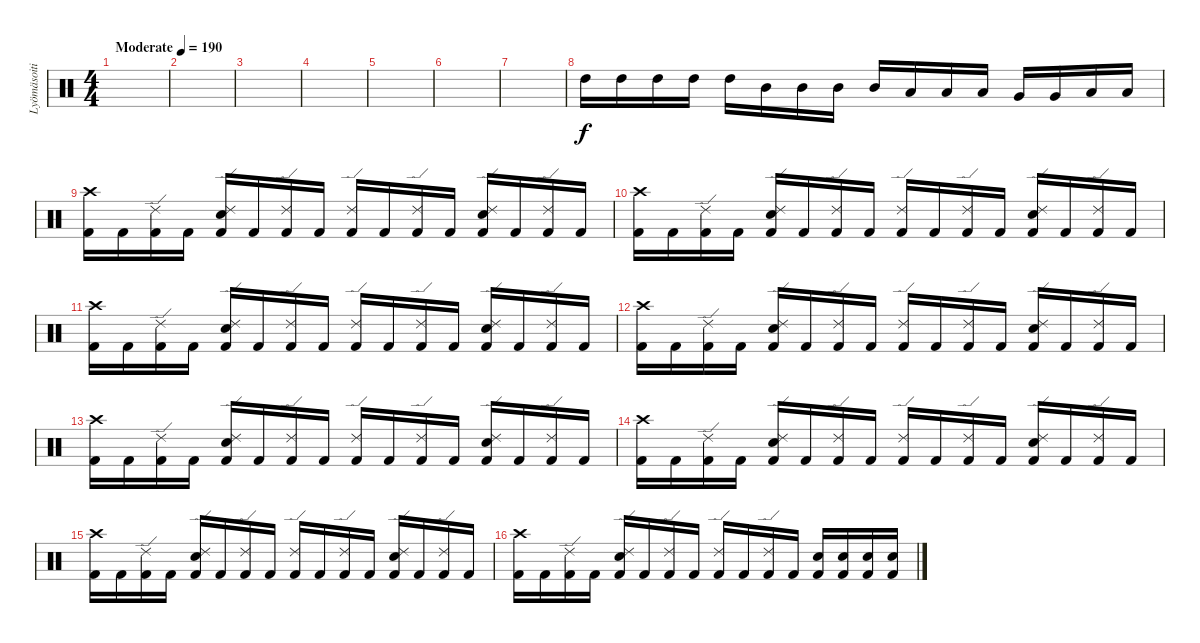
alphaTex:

\track ("Lyömäsoitin" "Lyömäsoiti") {instrument percussion}
\staff {score}
\articulation defaults
\ts (4 4)
\tempo (190 "Moderate")
\clef neutral
\ks c
|
|
|
|
|
|
|
"High Tom (hit)".16 "High Tom (hit)".16 "High Tom (hit)".16 "High Tom (hit)".16 "High Tom (hit)".16 "Mid Tom (hit)".16 "Mid Tom (hit)".16 "Mid Tom (hit)".16 "Mid Tom (hit)".16 "Low Tom (hit)".16 "Low Tom (hit)".16 "Low Tom (hit)".16 "Very Low Tom (hit)".16 "Very Low Tom (hit)".16 "Low Floor Tom (hit)".16 "Low Floor Tom (hit)".16 |
("Crash high (hit)" "Kick (hit) 2").16{dy f} "Kick (hit) 2".16 ("Ride (edge) 2" "Kick (hit) 2").16 "Kick (hit) 2".16 ("Ride (edge) 2" "Electric Snare (hit)" "Kick (hit) 2").16 "Kick (hit) 2".16 ("Ride (edge) 2" "Kick (hit) 2").16 "Kick (hit) 2".16 ("Ride (edge) 2" "Kick (hit) 2").16 "Kick (hit) 2".16 ("Ride (edge) 2" "Kick (hit) 2").16 "Kick (hit) 2".16 ("Ride (edge) 2" "Electric Snare (hit)" "Kick (hit) 2").16 "Kick (hit) 2".16 ("Ride (edge) 2" "Kick (hit) 2").16 "Kick (hit) 2".16 |
("Crash high (hit)" "Kick (hit) 2").16 "Kick (hit) 2".16 ("Ride (edge) 2" "Kick (hit) 2").16 "Kick (hit) 2".16 ("Ride (edge) 2" "Electric Snare (hit)" "Kick (hit) 2").16 "Kick (hit) 2".16 ("Ride (edge) 2" "Kick (hit) 2").16 "Kick (hit) 2".16 ("Ride (edge) 2" "Kick (hit) 2").16 "Kick (hit) 2".16 ("Ride (edge) 2" "Kick (hit) 2").16 "Kick (hit) 2".16 ("Ride (edge) 2" "Electric Snare (hit)" "Kick (hit) 2").16 "Kick (hit) 2".16 ("Ride (edge) 2" "Kick (hit) 2").16 "Kick (hit) 2".16 |
("Crash high (hit)" "Kick (hit) 2").16 "Kick (hit) 2".16 ("Ride (edge) 2" "Kick (hit) 2").16 "Kick (hit) 2".16 ("Ride (edge) 2" "Electric Snare (hit)" "Kick (hit) 2").16 "Kick (hit) 2".16 ("Ride (edge) 2" "Kick (hit) 2").16 "Kick (hit) 2".16 ("Ride (edge) 2" "Kick (hit) 2").16 "Kick (hit) 2".16 ("Ride (edge) 2" "Kick (hit) 2").16 "Kick (hit) 2".16 ("Ride (edge) 2" "Electric Snare (hit)" "Kick (hit) 2").16 "Kick (hit) 2".16 ("Ride (edge) 2" "Kick (hit) 2").16 "Kick (hit) 2".16 |
("Crash high (hit)" "Kick (hit) 2").16 "Kick (hit) 2".16 ("Ride (edge) 2" "Kick (hit) 2").16 "Kick (hit) 2".16 ("Ride (edge) 2" "Electric Snare (hit)" "Kick (hit) 2").16 "Kick (hit) 2".16 ("Ride (edge) 2" "Kick (hit) 2").16 "Kick (hit) 2".16 ("Ride (edge) 2" "Kick (hit) 2").16 "Kick (hit) 2".16 ("Ride (edge) 2" "Kick (hit) 2").16 "Kick (hit) 2".16 ("Ride (edge) 2" "Electric Snare (hit)" "Kick (hit) 2").16 "Kick (hit) 2".16 ("Ride (edge) 2" "Kick (hit) 2").16 "Kick (hit) 2".16 |
("Crash high (hit)" "Kick (hit) 2").16 "Kick (hit) 2".16 ("Ride (edge) 2" "Kick (hit) 2").16 "Kick (hit) 2".16 ("Ride (edge) 2" "Electric Snare (hit)" "Kick (hit) 2").16 "Kick (hit) 2".16 ("Ride (edge) 2" "Kick (hit) 2").16 "Kick (hit) 2".16 ("Ride (edge) 2" "Kick (hit) 2").16 "Kick (hit) 2".16 ("Ride (edge) 2" "Kick (hit) 2").16 "Kick (hit) 2".16 ("Ride (edge) 2" "Electric Snare (hit)" "Kick (hit) 2").16 "Kick (hit) 2".16 ("Ride (edge) 2" "Kick (hit) 2").16 "Kick (hit) 2".16 |
("Crash high (hit)" "Kick (hit) 2").16 "Kick (hit) 2".16 ("Ride (edge) 2" "Kick (hit) 2").16 "Kick (hit) 2".16 ("Ride (edge) 2" "Electric Snare (hit)" "Kick (hit) 2").16 "Kick (hit) 2".16 ("Ride (edge) 2" "Kick (hit) 2").16 "Kick (hit) 2".16 ("Ride (edge) 2" "Kick (hit) 2").16 "Kick (hit) 2".16 ("Ride (edge) 2" "Kick (hit) 2").16 "Kick (hit) 2".16 ("Ride (edge) 2" "Electric Snare (hit)" "Kick (hit) 2").16 "Kick (hit) 2".16 ("Ride (edge) 2" "Kick (hit) 2").16 "Kick (hit) 2".16 |
("Crash high (hit)" "Kick (hit) 2").16 "Kick (hit) 2".16 ("Ride (edge) 2" "Kick (hit) 2").16 "Kick (hit) 2".16 ("Ride (edge) 2" "Electric Snare (hit)" "Kick (hit) 2").16 "Kick (hit) 2".16 ("Ride (edge) 2" "Kick (hit) 2").16 "Kick (hit) 2".16 ("Ride (edge) 2" "Kick (hit) 2").16 "Kick (hit) 2".16 ("Ride (edge) 2" "Kick (hit) 2").16 "Kick (hit) 2".16 ("Ride (edge) 2" "Electric Snare (hit)" "Kick (hit) 2").16 "Kick (hit) 2".16 ("Ride (edge) 2" "Kick (hit) 2").16 "Kick (hit) 2".16 |
("Crash high (hit)" "Kick (hit) 2").16 "Kick (hit) 2".16 ("Ride (edge) 2" "Kick (hit) 2").16 "Kick (hit) 2".16 ("Ride (edge) 2" "Electric Snare (hit)" "Kick (hit) 2").16 "Kick (hit) 2".16 ("Ride (edge) 2" "Kick (hit) 2").16 "Kick (hit) 2".16 ("Ride (edge) 2" "Kick (hit) 2").16 "Kick (hit) 2".16 ("Ride (edge) 2" "Kick (hit) 2").16 "Kick (hit) 2".16 ("Electric Snare (hit)" "Kick (hit) 2").16 ("Electric Snare (hit)" "Kick (hit) 2").16 ("Electric Snare (hit)" "Kick (hit) 2").16 ("Electric Snare (hit)" "Kick (hit) 2").16
